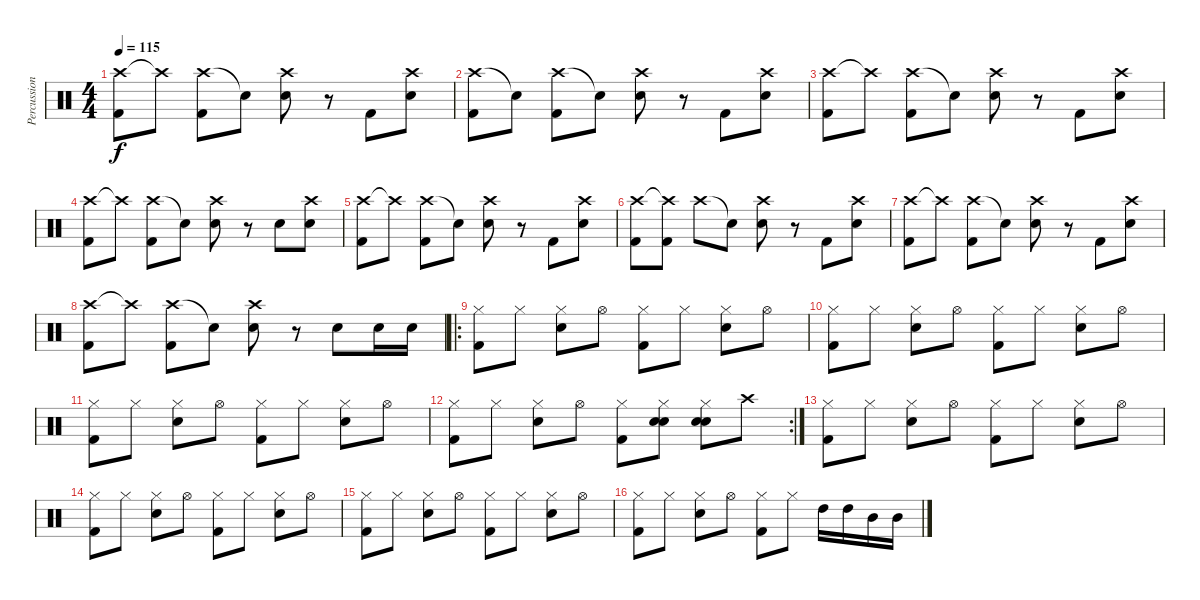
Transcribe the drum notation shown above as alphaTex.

\track ("Percussion" "Percussion") {instrument percussion}
\staff {score}
\articulation defaults
\ts (4 4)
\tempo 115
\clef neutral
\ks c
("Crash high (hit)" "Kick (hit) 2").8{dy f} "Crash high (hit)"{t}.8 ("Crash high (hit)" "Kick (hit) 2").8 "Snare (hit)"{t}.8 ("Crash high (hit)" "Snare (hit) 2").8 r.8 "Kick (hit) 2".8 ("Crash high (hit)" "Snare (hit) 2").8 |
("Crash high (hit)" "Kick (hit) 2").8 "Snare (hit)"{t}.8 ("Crash high (hit)" "Kick (hit) 2").8 "Snare (hit)"{t}.8 ("Crash high (hit)" "Snare (hit) 2").8 r.8 "Kick (hit) 2".8 ("Crash high (hit)" "Snare (hit) 2").8 |
("Crash high (hit)" "Kick (hit) 2").8 "Crash high (hit)"{t}.8 ("Crash high (hit)" "Kick (hit) 2").8 "Snare (hit)"{t}.8 ("Crash high (hit)" "Snare (hit) 2").8 r.8 "Kick (hit) 2".8 ("Crash high (hit)" "Snare (hit) 2").8 |
("Crash high (hit)" "Kick (hit) 2").8 "Crash high (hit)"{t}.8 ("Crash high (hit)" "Kick (hit) 2").8 "Snare (hit)"{t}.8 ("Crash high (hit)" "Snare (hit) 2").8 r.8 "Snare (hit) 2".8 ("Crash high (hit)" "Snare (hit) 2").8 |
("Crash high (hit)" "Kick (hit) 2").8 "Crash high (hit)"{t}.8 ("Crash high (hit)" "Kick (hit) 2").8 "Snare (hit)"{t}.8 ("Crash high (hit)" "Snare (hit) 2").8 r.8 "Kick (hit) 2".8 ("Crash high (hit)" "Snare (hit) 2").8 |
("Crash high (hit)" "Kick (hit) 2").8 ("Crash high (hit)"{t} "Kick (hit) 2").8 "Crash high (hit)".8 "Snare (hit)"{t}.8 ("Crash high (hit)" "Snare (hit) 2").8 r.8 "Kick (hit) 2".8 ("Crash high (hit)" "Snare (hit) 2").8 |
("Crash high (hit)" "Kick (hit) 2").8 "Crash high (hit)"{t}.8 ("Crash high (hit)" "Kick (hit) 2").8 "Snare (hit)"{t}.8 ("Crash high (hit)" "Snare (hit) 2").8 r.8 "Kick (hit) 2".8 ("Crash high (hit)" "Snare (hit) 2").8 |
("Crash high (hit)" "Kick (hit) 2").8 "Crash high (hit)"{t}.8 ("Crash high (hit)" "Kick (hit) 2").8 "Snare (hit)"{t}.8 ("Crash high (hit)" "Snare (hit) 2").8 r.8 "Snare (hit) 2".8 "Snare (hit) 2".16 "Snare (hit) 2".16 |
\ro
("Hi-Hat (closed)" "Kick (hit) 2").8 "Hi-Hat (closed)".8 ("Hi-Hat (closed)" "Snare (hit) 2").8 "Hi-Hat (open)".8 ("Hi-Hat (closed)" "Kick (hit) 2").8 "Hi-Hat (closed)".8 ("Hi-Hat (closed)" "Snare (hit) 2").8 "Hi-Hat (open)".8 |
("Hi-Hat (closed)" "Kick (hit) 2").8 "Hi-Hat (closed)".8 ("Hi-Hat (closed)" "Snare (hit) 2").8 "Hi-Hat (open)".8 ("Hi-Hat (closed)" "Kick (hit) 2").8 "Hi-Hat (closed)".8 ("Hi-Hat (closed)" "Snare (hit) 2").8 "Hi-Hat (open)".8 |
("Hi-Hat (closed)" "Kick (hit) 2").8 "Hi-Hat (closed)".8 ("Hi-Hat (closed)" "Snare (hit) 2").8 "Hi-Hat (open)".8 ("Hi-Hat (closed)" "Kick (hit) 2").8 "Hi-Hat (closed)".8 ("Hi-Hat (closed)" "Snare (hit) 2").8 "Hi-Hat (open)".8 |
\rc 2
("Hi-Hat (closed)" "Kick (hit) 2").8 "Hi-Hat (closed)".8 ("Hi-Hat (closed)" "Snare (hit) 2").8 "Hi-Hat (open)".8 ("Hi-Hat (closed)" "Kick (hit) 2").8 ("Hand Clap (hit)" "Hi-Hat (closed)" "Snare (hit) 2").8 ("Hand Clap (hit)" "Hi-Hat (closed)" "Snare (hit) 2").8 "Crash high (hit)".8 |
("Hi-Hat (closed)" "Kick (hit) 2").8 "Hi-Hat (closed)".8 ("Hi-Hat (closed)" "Snare (hit) 2").8 "Hi-Hat (open)".8 ("Hi-Hat (closed)" "Kick (hit) 2").8 "Hi-Hat (closed)".8 ("Hi-Hat (closed)" "Snare (hit) 2").8 "Hi-Hat (open)".8 |
("Hi-Hat (closed)" "Kick (hit) 2").8 "Hi-Hat (closed)".8 ("Hi-Hat (closed)" "Snare (hit) 2").8 "Hi-Hat (open)".8 ("Hi-Hat (closed)" "Kick (hit) 2").8 "Hi-Hat (closed)".8 ("Hi-Hat (closed)" "Snare (hit) 2").8 "Hi-Hat (open)".8 |
("Hi-Hat (closed)" "Kick (hit) 2").8 "Hi-Hat (closed)".8 ("Hi-Hat (closed)" "Snare (hit) 2").8 "Hi-Hat (open)".8 ("Hi-Hat (closed)" "Kick (hit) 2").8 "Hi-Hat (closed)".8 ("Hi-Hat (closed)" "Snare (hit) 2").8 "Hi-Hat (open)".8 |
("Hi-Hat (closed)" "Kick (hit) 2").8 "Hi-Hat (closed)".8 ("Hi-Hat (closed)" "Snare (hit) 2").8 "Hi-Hat (open)".8 ("Hi-Hat (closed)" "Kick (hit) 2").8 "Hi-Hat (closed)".8 "High Tom (hit)".16 "High Tom (hit)".16 "Mid Tom (hit)".16 "Mid Tom (hit)".16
